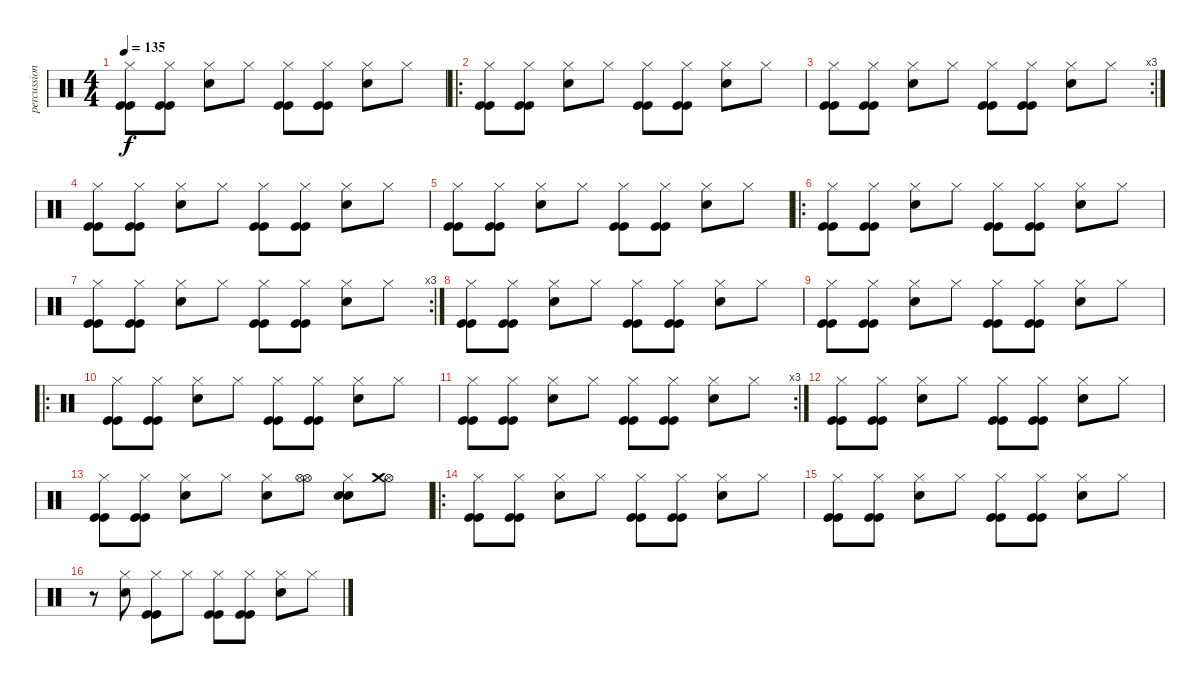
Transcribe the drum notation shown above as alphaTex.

\track ("percussions" "percussion") {instrument percussion}
\staff {score}
\articulation defaults
\ts (4 4)
\tempo 135
\clef neutral
\ks c
("Hi-Hat (closed)" "Kick (hit)" "Kick (hit)").8{dy f} ("Hi-Hat (closed)" "Kick (hit)" "Kick (hit)").8 ("Hi-Hat (closed)" "Electric Snare (hit)").8 "Hi-Hat (closed)".8 ("Hi-Hat (closed)" "Kick (hit)" "Kick (hit)").8 ("Hi-Hat (closed)" "Kick (hit)" "Kick (hit)").8 ("Hi-Hat (closed)" "Electric Snare (hit)").8 "Hi-Hat (closed)".8 |
\ro
("Hi-Hat (closed)" "Kick (hit)" "Kick (hit)").8 ("Hi-Hat (closed)" "Kick (hit)" "Kick (hit)").8 ("Hi-Hat (closed)" "Electric Snare (hit)").8 "Hi-Hat (closed)".8 ("Hi-Hat (closed)" "Kick (hit)" "Kick (hit)").8 ("Hi-Hat (closed)" "Kick (hit)" "Kick (hit)").8 ("Hi-Hat (closed)" "Electric Snare (hit)").8 "Hi-Hat (closed)".8 |
\rc 3
("Hi-Hat (closed)" "Kick (hit)" "Kick (hit)").8 ("Hi-Hat (closed)" "Kick (hit)" "Kick (hit)").8 ("Hi-Hat (closed)" "Electric Snare (hit)").8 "Hi-Hat (closed)".8 ("Hi-Hat (closed)" "Kick (hit)" "Kick (hit)").8 ("Hi-Hat (closed)" "Kick (hit)" "Kick (hit)").8 ("Hi-Hat (closed)" "Electric Snare (hit)").8 "Hi-Hat (closed)".8 |
("Hi-Hat (closed)" "Kick (hit)" "Kick (hit)").8 ("Hi-Hat (closed)" "Kick (hit)" "Kick (hit)").8 ("Hi-Hat (closed)" "Electric Snare (hit)").8 "Hi-Hat (closed)".8 ("Hi-Hat (closed)" "Kick (hit)" "Kick (hit)").8 ("Hi-Hat (closed)" "Kick (hit)" "Kick (hit)").8 ("Hi-Hat (closed)" "Electric Snare (hit)").8 "Hi-Hat (closed)".8 |
("Hi-Hat (closed)" "Kick (hit)" "Kick (hit)").8 ("Hi-Hat (closed)" "Kick (hit)" "Kick (hit)").8 ("Hi-Hat (closed)" "Electric Snare (hit)").8 "Hi-Hat (closed)".8 ("Hi-Hat (closed)" "Kick (hit)" "Kick (hit)").8 ("Hi-Hat (closed)" "Kick (hit)" "Kick (hit)").8 ("Hi-Hat (closed)" "Electric Snare (hit)").8 "Hi-Hat (closed)".8 |
\ro
("Hi-Hat (closed)" "Kick (hit)" "Kick (hit)").8 ("Hi-Hat (closed)" "Kick (hit)" "Kick (hit)").8 ("Hi-Hat (closed)" "Electric Snare (hit)").8 "Hi-Hat (closed)".8 ("Hi-Hat (closed)" "Kick (hit)" "Kick (hit)").8 ("Hi-Hat (closed)" "Kick (hit)" "Kick (hit)").8 ("Hi-Hat (closed)" "Electric Snare (hit)").8 "Hi-Hat (closed)".8 |
\rc 3
("Hi-Hat (closed)" "Kick (hit)" "Kick (hit)").8 ("Hi-Hat (closed)" "Kick (hit)" "Kick (hit)").8 ("Hi-Hat (closed)" "Electric Snare (hit)").8 "Hi-Hat (closed)".8 ("Hi-Hat (closed)" "Kick (hit)" "Kick (hit)").8 ("Hi-Hat (closed)" "Kick (hit)" "Kick (hit)").8 ("Hi-Hat (closed)" "Electric Snare (hit)").8 "Hi-Hat (closed)".8 |
("Hi-Hat (closed)" "Kick (hit)" "Kick (hit)").8 ("Hi-Hat (closed)" "Kick (hit)" "Kick (hit)").8 ("Hi-Hat (closed)" "Electric Snare (hit)").8 "Hi-Hat (closed)".8 ("Hi-Hat (closed)" "Kick (hit)" "Kick (hit)").8 ("Hi-Hat (closed)" "Kick (hit)" "Kick (hit)").8 ("Hi-Hat (closed)" "Electric Snare (hit)").8 "Hi-Hat (closed)".8 |
("Hi-Hat (closed)" "Kick (hit)" "Kick (hit)").8 ("Hi-Hat (closed)" "Kick (hit)" "Kick (hit)").8 ("Hi-Hat (closed)" "Electric Snare (hit)").8 "Hi-Hat (closed)".8 ("Hi-Hat (closed)" "Kick (hit)" "Kick (hit)").8 ("Hi-Hat (closed)" "Kick (hit)" "Kick (hit)").8 ("Hi-Hat (closed)" "Electric Snare (hit)").8 "Hi-Hat (closed)".8 |
\ro
("Hi-Hat (closed)" "Kick (hit)" "Kick (hit)").8 ("Hi-Hat (closed)" "Kick (hit)" "Kick (hit)").8 ("Hi-Hat (closed)" "Electric Snare (hit)").8 "Hi-Hat (closed)".8 ("Hi-Hat (closed)" "Kick (hit)" "Kick (hit)").8 ("Hi-Hat (closed)" "Kick (hit)" "Kick (hit)").8 ("Hi-Hat (closed)" "Electric Snare (hit)").8 "Hi-Hat (closed)".8 |
\rc 3
("Hi-Hat (closed)" "Kick (hit)" "Kick (hit)").8 ("Hi-Hat (closed)" "Kick (hit)" "Kick (hit)").8 ("Hi-Hat (closed)" "Electric Snare (hit)").8 "Hi-Hat (closed)".8 ("Hi-Hat (closed)" "Kick (hit)" "Kick (hit)").8 ("Hi-Hat (closed)" "Kick (hit)" "Kick (hit)").8 ("Hi-Hat (closed)" "Electric Snare (hit)").8 "Hi-Hat (closed)".8 |
("Hi-Hat (closed)" "Kick (hit)" "Kick (hit)").8 ("Hi-Hat (closed)" "Kick (hit)" "Kick (hit)").8 ("Hi-Hat (closed)" "Electric Snare (hit)").8 "Hi-Hat (closed)".8 ("Hi-Hat (closed)" "Kick (hit)" "Kick (hit)").8 ("Hi-Hat (closed)" "Kick (hit)" "Kick (hit)").8 ("Hi-Hat (closed)" "Electric Snare (hit)").8 "Hi-Hat (closed)".8 |
("Hi-Hat (closed)" "Kick (hit)" "Kick (hit)").8 ("Hi-Hat (closed)" "Kick (hit)" "Kick (hit)").8 ("Hi-Hat (closed)" "Electric Snare (hit)").8 "Hi-Hat (closed)".8 ("Hi-Hat (closed)" "Electric Snare (hit)").8 ("Hi-Hat (open)" "Hi-Hat (open)").8 ("Hi-Hat (closed)" "Electric Snare (hit)" "Electric Snare (hit)").8 ("Hi-Hat (open)" "Crash medium (hit)").8 |
\ro
("Hi-Hat (closed)" "Kick (hit)" "Kick (hit)").8 ("Hi-Hat (closed)" "Kick (hit)" "Kick (hit)").8 ("Hi-Hat (closed)" "Electric Snare (hit)").8 "Hi-Hat (closed)".8 ("Hi-Hat (closed)" "Kick (hit)" "Kick (hit)").8 ("Hi-Hat (closed)" "Kick (hit)" "Kick (hit)").8 ("Hi-Hat (closed)" "Electric Snare (hit)").8 "Hi-Hat (closed)".8 |
("Hi-Hat (closed)" "Kick (hit)" "Kick (hit)").8 ("Hi-Hat (closed)" "Kick (hit)" "Kick (hit)").8 ("Hi-Hat (closed)" "Electric Snare (hit)").8 "Hi-Hat (closed)".8 ("Hi-Hat (closed)" "Kick (hit)" "Kick (hit)").8 ("Hi-Hat (closed)" "Kick (hit)" "Kick (hit)").8 ("Hi-Hat (closed)" "Electric Snare (hit)").8 "Hi-Hat (closed)".8 |
r.8 ("Hi-Hat (closed)" "Electric Snare (hit)").8 ("Hi-Hat (closed)" "Kick (hit)" "Kick (hit)").8 "Hi-Hat (closed)".8 ("Hi-Hat (closed)" "Kick (hit)" "Kick (hit)").8 ("Hi-Hat (closed)" "Kick (hit)" "Kick (hit)").8 ("Hi-Hat (closed)" "Electric Snare (hit)").8 "Hi-Hat (closed)".8
